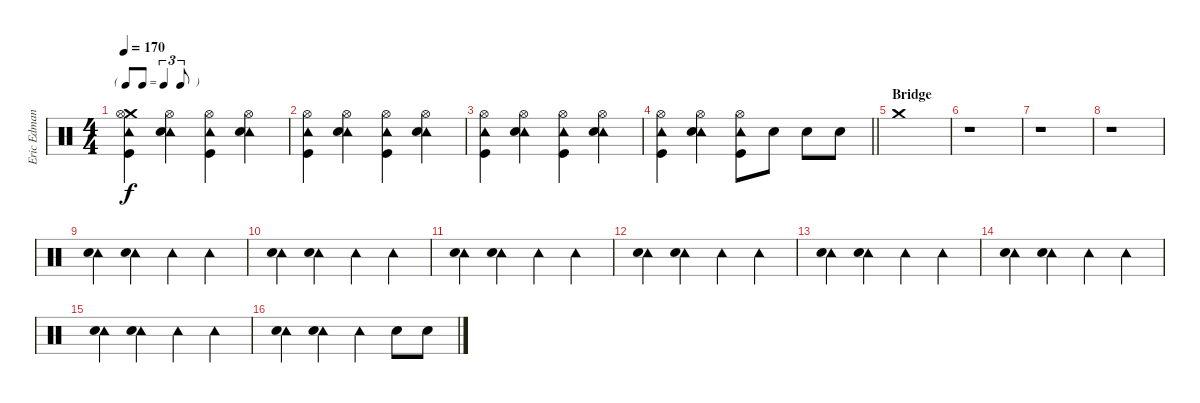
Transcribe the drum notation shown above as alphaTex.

\track ("Eric Edman - Drums" "Eric Edman") {instrument percussion}
\staff {score}
\articulation defaults
\ts (4 4)
\tf triplet8th
\tempo 170
\clef neutral
\ks c
("Crash medium (hit)" "Tambourine (hit)" "Kick (hit)" "Hi-Hat (open)").4{dy f} ("Tambourine (hit)" "Snare (hit) 2" "Hi-Hat (open)").4 ("Tambourine (hit)" "Kick (hit)" "Hi-Hat (open)").4 ("Tambourine (hit)" "Snare (hit) 2" "Hi-Hat (open)").4 |
("Tambourine (hit)" "Kick (hit)" "Hi-Hat (open)").4 ("Tambourine (hit)" "Snare (hit) 2" "Hi-Hat (open)").4 ("Tambourine (hit)" "Kick (hit)" "Hi-Hat (open)").4 ("Tambourine (hit)" "Snare (hit) 2" "Hi-Hat (open)").4 |
("Tambourine (hit)" "Kick (hit)" "Hi-Hat (open)").4 ("Tambourine (hit)" "Snare (hit) 2" "Hi-Hat (open)").4 ("Tambourine (hit)" "Kick (hit)" "Hi-Hat (open)").4 ("Tambourine (hit)" "Snare (hit) 2" "Hi-Hat (open)").4 |
\barLineRight lightlight
("Tambourine (hit)" "Kick (hit)" "Hi-Hat (open)").4 ("Tambourine (hit)" "Snare (hit) 2" "Hi-Hat (open)").4 ("Tambourine (hit)" "Kick (hit)" "Hi-Hat (open)").8 "Snare (hit) 2".8 "Snare (hit) 2".8 "Snare (hit) 2".8 |
\section ("" "Bridge")
"Crash medium (hit)".1 |
r.1 |
r.1 |
r.1 |
("Tambourine (hit)" "Snare (hit) 2").4 ("Tambourine (hit)" "Snare (hit) 2").4 "Tambourine (hit)".4 "Tambourine (hit)".4 |
("Tambourine (hit)" "Snare (hit) 2").4 ("Tambourine (hit)" "Snare (hit) 2").4 "Tambourine (hit)".4 "Tambourine (hit)".4 |
("Tambourine (hit)" "Snare (hit) 2").4 ("Tambourine (hit)" "Snare (hit) 2").4 "Tambourine (hit)".4 "Tambourine (hit)".4 |
("Tambourine (hit)" "Snare (hit) 2").4 ("Tambourine (hit)" "Snare (hit) 2").4 "Tambourine (hit)".4 "Tambourine (hit)".4 |
("Tambourine (hit)" "Snare (hit) 2").4 ("Tambourine (hit)" "Snare (hit) 2").4 "Tambourine (hit)".4 "Tambourine (hit)".4 |
("Tambourine (hit)" "Snare (hit) 2").4 ("Tambourine (hit)" "Snare (hit) 2").4 "Tambourine (hit)".4 "Tambourine (hit)".4 |
("Tambourine (hit)" "Snare (hit) 2").4 ("Tambourine (hit)" "Snare (hit) 2").4 "Tambourine (hit)".4 "Tambourine (hit)".4 |
("Tambourine (hit)" "Snare (hit) 2").4 ("Tambourine (hit)" "Snare (hit) 2").4 "Tambourine (hit)".4 "Snare (hit) 2".8 "Snare (hit) 2".8
